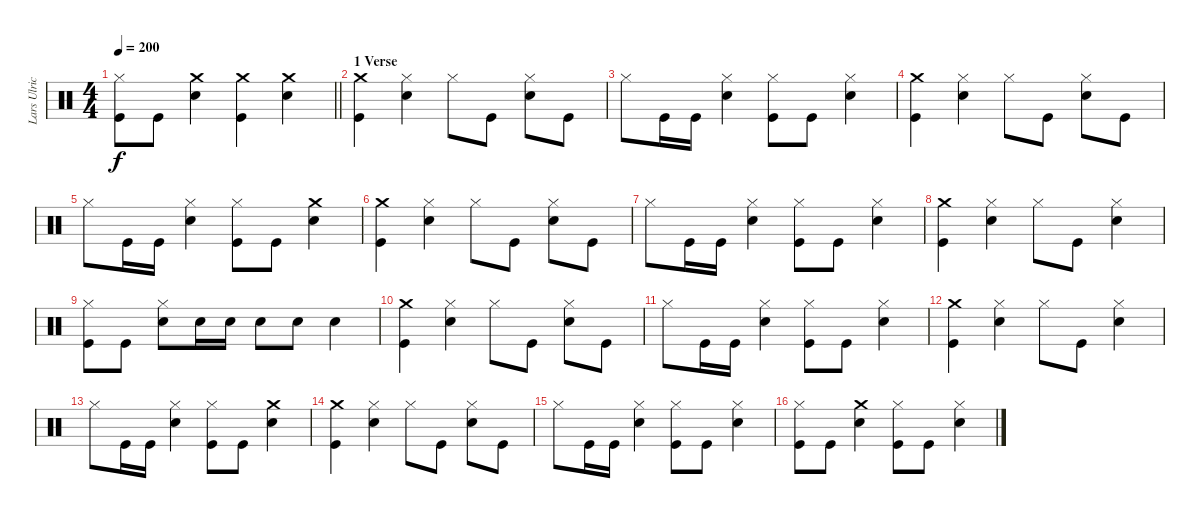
\track ("Lars Ulrich (Drums)" "Lars Ulric") {instrument percussion}
\staff {score}
\articulation defaults
\ts (4 4)
\tempo 200
\clef neutral
\barLineRight lightlight
\ks c
("Kick (hit)" "Hi-Hat (closed)").8{dy f} "Kick (hit)".8 ("Crash medium (hit)" "Snare (hit) 2").4 ("Kick (hit)" "Crash medium (hit)").4 ("Snare (hit) 2" "Crash medium (hit)").4 |
\section ("" "1 Verse")
("Kick (hit)" "Crash medium (hit)").4 ("Snare (hit) 2" "Hi-Hat (closed)").4 "Hi-Hat (closed)".8 "Kick (hit)".8 ("Snare (hit) 2" "Hi-Hat (closed)").8 "Kick (hit)".8 |
"Hi-Hat (closed)".8 "Kick (hit)".16 "Kick (hit)".16 ("Snare (hit) 2" "Hi-Hat (closed)").4 ("Kick (hit)" "Hi-Hat (closed)").8 "Kick (hit)".8 ("Snare (hit) 2" "Hi-Hat (closed)").4 |
("Kick (hit)" "Crash medium (hit)").4 ("Hi-Hat (closed)" "Snare (hit) 2").4 "Hi-Hat (closed)".8 "Kick (hit)".8 ("Snare (hit) 2" "Hi-Hat (closed)").8 "Kick (hit)".8 |
"Hi-Hat (closed)".8 "Kick (hit)".16 "Kick (hit)".16 ("Snare (hit) 2" "Hi-Hat (closed)").4 ("Kick (hit)" "Hi-Hat (closed)").8 "Kick (hit)".8 ("Crash medium (hit)" "Snare (hit) 2").4 |
("Kick (hit)" "Crash medium (hit)").4 ("Hi-Hat (closed)" "Snare (hit) 2").4 "Hi-Hat (closed)".8 "Kick (hit)".8 ("Snare (hit) 2" "Hi-Hat (closed)").8 "Kick (hit)".8 |
"Hi-Hat (closed)".8 "Kick (hit)".16 "Kick (hit)".16 ("Snare (hit) 2" "Hi-Hat (closed)").4 ("Kick (hit)" "Hi-Hat (closed)").8 "Kick (hit)".8 ("Snare (hit) 2" "Hi-Hat (closed)").4 |
("Kick (hit)" "Crash medium (hit)").4 ("Hi-Hat (closed)" "Snare (hit) 2").4 "Hi-Hat (closed)".8 "Kick (hit)".8 ("Snare (hit) 2" "Hi-Hat (closed)").4 |
("Kick (hit)" "Hi-Hat (closed)").8 "Kick (hit)".8 ("Snare (hit) 2" "Hi-Hat (closed)").8 "Snare (hit) 2".16 "Snare (hit) 2".16 "Snare (hit) 2".8 "Snare (hit) 2".8 "Snare (hit) 2".4 |
("Kick (hit)" "Crash medium (hit)").4 ("Hi-Hat (closed)" "Snare (hit) 2").4 "Hi-Hat (closed)".8 "Kick (hit)".8 ("Snare (hit) 2" "Hi-Hat (closed)").8 "Kick (hit)".8 |
"Hi-Hat (closed)".8 "Kick (hit)".16 "Kick (hit)".16 ("Snare (hit) 2" "Hi-Hat (closed)").4 ("Kick (hit)" "Hi-Hat (closed)").8 "Kick (hit)".8 ("Snare (hit) 2" "Hi-Hat (closed)").4 |
("Kick (hit)" "Crash medium (hit)").4 ("Hi-Hat (closed)" "Snare (hit) 2").4 "Hi-Hat (closed)".8 "Kick (hit)".8 ("Snare (hit) 2" "Hi-Hat (closed)").4 |
"Hi-Hat (closed)".8 "Kick (hit)".16 "Kick (hit)".16 ("Snare (hit) 2" "Hi-Hat (closed)").4 ("Kick (hit)" "Hi-Hat (closed)").8 "Kick (hit)".8 ("Crash medium (hit)" "Snare (hit) 2").4 |
("Kick (hit)" "Crash medium (hit)").4 ("Hi-Hat (closed)" "Snare (hit) 2").4 "Hi-Hat (closed)".8 "Kick (hit)".8 ("Snare (hit) 2" "Hi-Hat (closed)").8 "Kick (hit)".8 |
"Hi-Hat (closed)".8 "Kick (hit)".16 "Kick (hit)".16 ("Snare (hit) 2" "Hi-Hat (closed)").4 ("Kick (hit)" "Hi-Hat (closed)").8 "Kick (hit)".8 ("Snare (hit) 2" "Hi-Hat (closed)").4 |
("Kick (hit)" "Hi-Hat (closed)").8 "Kick (hit)".8 ("Snare (hit) 2" "Crash medium (hit)").4 ("Kick (hit)" "Hi-Hat (closed)").8 "Kick (hit)".8 ("Snare (hit) 2" "Hi-Hat (closed)").4
